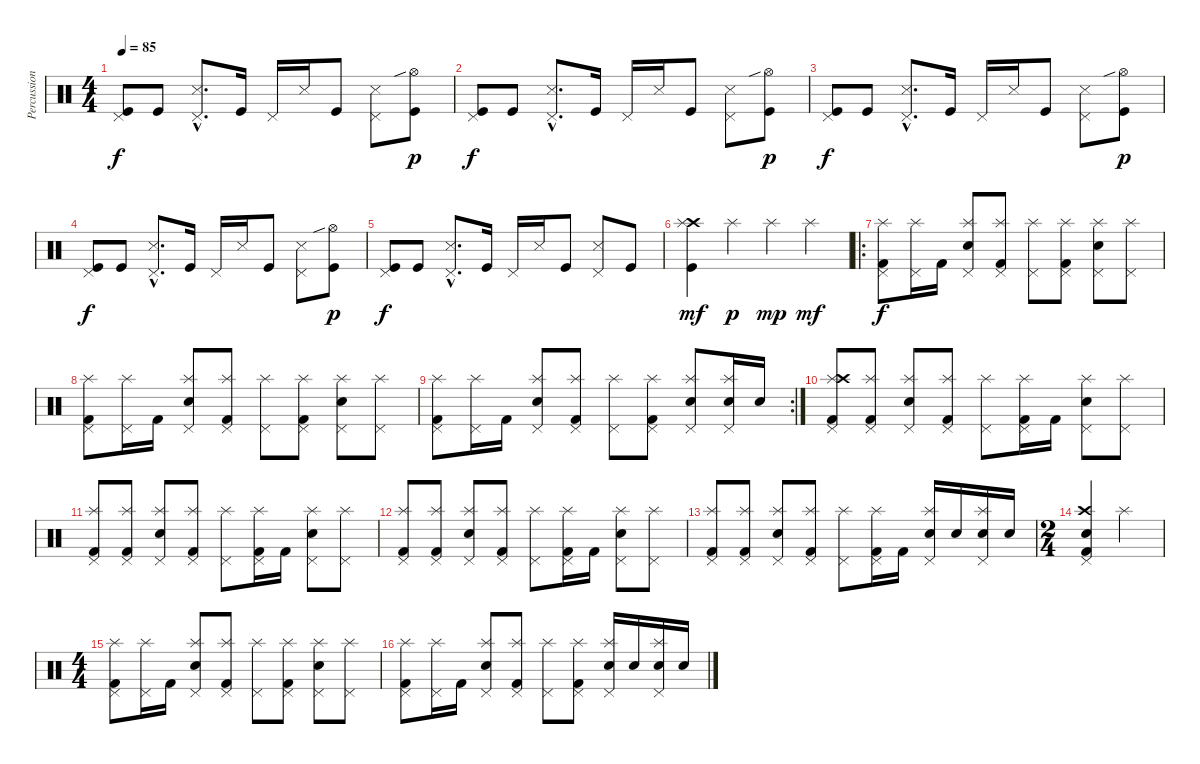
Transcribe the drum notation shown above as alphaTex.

\track ("Percussion" "Percussion") {instrument percussion}
\staff {score}
\articulation defaults
\ts (4 4)
\tempo 85
\clef neutral
\ks c
("Kick (hit)" "Pedal Hi-Hat (hit)").8{dy f} "Kick (hit)".8 ("Snare (side stick) 3"{hac} "Pedal Hi-Hat (hit)"{hac}).8{d} "Kick (hit)".16 "Pedal Hi-Hat (hit)".16 "Snare (side stick) 3".16 "Kick (hit)".8 ("Snare (side stick) 3" "Pedal Hi-Hat (hit)").8 ("Kick (hit)" "Hi-Hat (open)"{sib}).8{dy p} |
("Kick (hit)" "Pedal Hi-Hat (hit)").8{dy f} "Kick (hit)".8 ("Snare (side stick) 3"{hac} "Pedal Hi-Hat (hit)"{hac}).8{d} "Kick (hit)".16 "Pedal Hi-Hat (hit)".16 "Snare (side stick) 3".16 "Kick (hit)".8 ("Snare (side stick) 3" "Pedal Hi-Hat (hit)").8 ("Kick (hit)" "Hi-Hat (open)"{sib}).8{dy p} |
("Kick (hit)" "Pedal Hi-Hat (hit)").8{dy f} "Kick (hit)".8 ("Snare (side stick) 3"{hac} "Pedal Hi-Hat (hit)"{hac}).8{d} "Kick (hit)".16 "Pedal Hi-Hat (hit)".16 "Snare (side stick) 3".16 "Kick (hit)".8 ("Snare (side stick) 3" "Pedal Hi-Hat (hit)").8 ("Kick (hit)" "Hi-Hat (open)"{sib}).8{dy p} |
("Kick (hit)" "Pedal Hi-Hat (hit)").8{dy f} "Kick (hit)".8 ("Snare (side stick) 3"{hac} "Pedal Hi-Hat (hit)"{hac}).8{d} "Kick (hit)".16 "Pedal Hi-Hat (hit)".16 "Snare (side stick) 3".16 "Kick (hit)".8 ("Snare (side stick) 3" "Pedal Hi-Hat (hit)").8 ("Kick (hit)" "Hi-Hat (open)"{sib}).8{dy p} |
("Kick (hit)" "Pedal Hi-Hat (hit)").8{dy f} "Kick (hit)".8 ("Snare (side stick) 3"{hac} "Pedal Hi-Hat (hit)"{hac}).8{d} "Kick (hit)".16 "Pedal Hi-Hat (hit)".16 "Snare (side stick) 3".16 "Kick (hit)".8 ("Snare (side stick) 3" "Pedal Hi-Hat (hit)").8 "Kick (hit)".8 |
("Kick (hit)" "Crash high (hit)" "Splash (hit)").4{dy mf} "Splash (hit)".4{dy p} "Splash (hit)".4{dy mp} "Splash (hit)".4{dy mf} |
\ro
("Pedal Hi-Hat (hit)" "Splash (hit)" "Kick (hit) 2").8{dy f} ("Pedal Hi-Hat (hit)" "Splash (hit)").16 "Kick (hit) 2".16 ("Pedal Hi-Hat (hit)" "Splash (hit)" "Electric Snare (hit)").8 ("Pedal Hi-Hat (hit)" "Splash (hit)" "Kick (hit) 2").8 ("Pedal Hi-Hat (hit)" "Splash (hit)").8 ("Pedal Hi-Hat (hit)" "Splash (hit)" "Kick (hit) 2").8 ("Pedal Hi-Hat (hit)" "Splash (hit)" "Electric Snare (hit)").8 ("Pedal Hi-Hat (hit)" "Splash (hit)").8 |
("Pedal Hi-Hat (hit)" "Splash (hit)" "Kick (hit) 2").8 ("Pedal Hi-Hat (hit)" "Splash (hit)").16 "Kick (hit) 2".16 ("Pedal Hi-Hat (hit)" "Splash (hit)" "Electric Snare (hit)").8 ("Pedal Hi-Hat (hit)" "Splash (hit)" "Kick (hit) 2").8 ("Pedal Hi-Hat (hit)" "Splash (hit)").8 ("Pedal Hi-Hat (hit)" "Splash (hit)" "Kick (hit) 2").8 ("Pedal Hi-Hat (hit)" "Splash (hit)" "Electric Snare (hit)").8 ("Pedal Hi-Hat (hit)" "Splash (hit)").8 |
\rc 2
("Pedal Hi-Hat (hit)" "Splash (hit)" "Kick (hit) 2").8 ("Pedal Hi-Hat (hit)" "Splash (hit)").16 "Kick (hit) 2".16 ("Pedal Hi-Hat (hit)" "Splash (hit)" "Electric Snare (hit)").8 ("Pedal Hi-Hat (hit)" "Splash (hit)" "Kick (hit) 2").8 ("Pedal Hi-Hat (hit)" "Splash (hit)").8 ("Pedal Hi-Hat (hit)" "Splash (hit)" "Kick (hit) 2").8 ("Pedal Hi-Hat (hit)" "Splash (hit)" "Electric Snare (hit)").8 ("Pedal Hi-Hat (hit)" "Splash (hit)" "Electric Snare (hit)").16 "Electric Snare (hit)".16 |
("Pedal Hi-Hat (hit)" "Splash (hit)" "Crash high (hit)" "Kick (hit) 2").8 ("Pedal Hi-Hat (hit)" "Splash (hit)" "Kick (hit) 2").8 ("Pedal Hi-Hat (hit)" "Splash (hit)" "Electric Snare (hit)").8 ("Pedal Hi-Hat (hit)" "Splash (hit)" "Kick (hit) 2").8 ("Pedal Hi-Hat (hit)" "Splash (hit)").8 ("Pedal Hi-Hat (hit)" "Splash (hit)" "Kick (hit) 2").16 "Kick (hit) 2".16 ("Pedal Hi-Hat (hit)" "Splash (hit)" "Electric Snare (hit)").8 ("Pedal Hi-Hat (hit)" "Splash (hit)").8 |
("Pedal Hi-Hat (hit)" "Splash (hit)" "Kick (hit) 2").8 ("Pedal Hi-Hat (hit)" "Splash (hit)" "Kick (hit) 2").8 ("Pedal Hi-Hat (hit)" "Splash (hit)" "Electric Snare (hit)").8 ("Pedal Hi-Hat (hit)" "Splash (hit)" "Kick (hit) 2").8 ("Pedal Hi-Hat (hit)" "Splash (hit)").8 ("Pedal Hi-Hat (hit)" "Splash (hit)" "Kick (hit) 2").16 "Kick (hit) 2".16 ("Pedal Hi-Hat (hit)" "Splash (hit)" "Electric Snare (hit)").8 ("Pedal Hi-Hat (hit)" "Splash (hit)").8 |
("Pedal Hi-Hat (hit)" "Splash (hit)" "Kick (hit) 2").8 ("Pedal Hi-Hat (hit)" "Splash (hit)" "Kick (hit) 2").8 ("Pedal Hi-Hat (hit)" "Splash (hit)" "Electric Snare (hit)").8 ("Pedal Hi-Hat (hit)" "Splash (hit)" "Kick (hit) 2").8 ("Pedal Hi-Hat (hit)" "Splash (hit)").8 ("Pedal Hi-Hat (hit)" "Splash (hit)" "Kick (hit) 2").16 "Kick (hit) 2".16 ("Pedal Hi-Hat (hit)" "Splash (hit)" "Electric Snare (hit)").8 ("Pedal Hi-Hat (hit)" "Splash (hit)").8 |
("Pedal Hi-Hat (hit)" "Splash (hit)" "Kick (hit) 2").8 ("Pedal Hi-Hat (hit)" "Splash (hit)" "Kick (hit) 2").8 ("Pedal Hi-Hat (hit)" "Splash (hit)" "Electric Snare (hit)").8 ("Pedal Hi-Hat (hit)" "Splash (hit)" "Kick (hit) 2").8 ("Pedal Hi-Hat (hit)" "Splash (hit)").8 ("Pedal Hi-Hat (hit)" "Splash (hit)" "Kick (hit) 2").16 "Kick (hit) 2".16 ("Pedal Hi-Hat (hit)" "Splash (hit)" "Electric Snare (hit)").16 "Electric Snare (hit)".16 ("Pedal Hi-Hat (hit)" "Splash (hit)" "Electric Snare (hit)").16 "Electric Snare (hit)".16 |
\ts (2 4)
("Pedal Hi-Hat (hit)" "Crash high (hit)" "Electric Snare (hit)" "Kick (hit) 2").4 "Splash (hit)".4 |
\ts (4 4)
("Pedal Hi-Hat (hit)" "Splash (hit)" "Kick (hit) 2").8 ("Pedal Hi-Hat (hit)" "Splash (hit)").16 "Kick (hit) 2".16 ("Pedal Hi-Hat (hit)" "Splash (hit)" "Electric Snare (hit)").8 ("Pedal Hi-Hat (hit)" "Splash (hit)" "Kick (hit) 2").8 ("Pedal Hi-Hat (hit)" "Splash (hit)").8 ("Pedal Hi-Hat (hit)" "Splash (hit)" "Kick (hit) 2").8 ("Pedal Hi-Hat (hit)" "Splash (hit)" "Electric Snare (hit)").8 ("Pedal Hi-Hat (hit)" "Splash (hit)").8 |
("Pedal Hi-Hat (hit)" "Splash (hit)" "Kick (hit) 2").8 ("Pedal Hi-Hat (hit)" "Splash (hit)").16 "Kick (hit) 2".16 ("Pedal Hi-Hat (hit)" "Splash (hit)" "Electric Snare (hit)").8 ("Pedal Hi-Hat (hit)" "Splash (hit)" "Kick (hit) 2").8 ("Pedal Hi-Hat (hit)" "Splash (hit)").8 ("Pedal Hi-Hat (hit)" "Splash (hit)" "Kick (hit) 2").8 ("Pedal Hi-Hat (hit)" "Splash (hit)" "Electric Snare (hit)").16 "Electric Snare (hit)".16 ("Pedal Hi-Hat (hit)" "Splash (hit)" "Electric Snare (hit)").16 "Electric Snare (hit)".16
